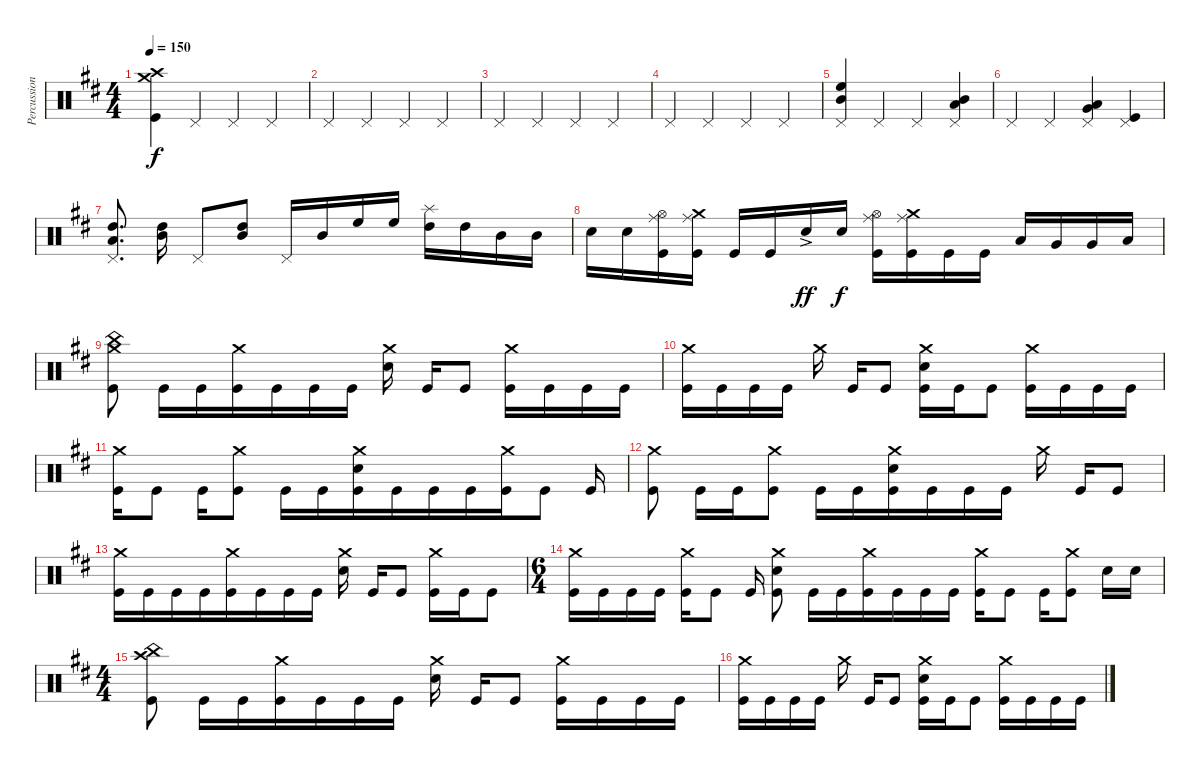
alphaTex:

\track ("Percussion" "Percussion") {instrument percussion}
\staff {score}
\articulation defaults
\ts (4 4)
\tempo 150
\clef neutral
\ks bminor
("Crash medium (hit)" "Crash high (hit)" "Kick (hit)").4{dy f} "Pedal Hi-Hat (hit)".4{volume 13} "Pedal Hi-Hat (hit)".4 "Pedal Hi-Hat (hit)".4 |
"Pedal Hi-Hat (hit)".4 "Pedal Hi-Hat (hit)".4 "Pedal Hi-Hat (hit)".4 "Pedal Hi-Hat (hit)".4 |
"Pedal Hi-Hat (hit)".4 "Pedal Hi-Hat (hit)".4 "Pedal Hi-Hat (hit)".4 "Pedal Hi-Hat (hit)".4 |
"Pedal Hi-Hat (hit)".4 "Pedal Hi-Hat (hit)".4 "Pedal Hi-Hat (hit)".4 "Pedal Hi-Hat (hit)".4 |
("Pedal Hi-Hat (hit)" "High Floor Tom (hit)" "Mid Tom (hit)").4{volume 14} "Pedal Hi-Hat (hit)".4{volume 13} "Pedal Hi-Hat (hit)".4 ("Pedal Hi-Hat (hit)" "Mid Tom (hit)" "Low Tom (hit)").4{volume 14} |
"Pedal Hi-Hat (hit)".4{volume 13} "Pedal Hi-Hat (hit)".4 ("Pedal Hi-Hat (hit)" "Low Tom (hit)" "Very Low Tom (hit)").4{volume 14} ("Pedal Hi-Hat (hit)" "Kick (hit)").4{volume 13} |
("Pedal Hi-Hat (hit)" "Low Tom (hit)" "High Tom (hit)").8{d beam split} ("Mid Tom (hit)" "High Tom (hit)").16 "Pedal Hi-Hat (hit)".8 ("High Tom (hit)" "Mid Tom (hit)").8 "Pedal Hi-Hat (hit)".16 "Mid Tom (hit)".16 "High Floor Tom (hit)".16 "High Floor Tom (hit)".16 ("Splash (hit)" "High Tom (hit)").16 "High Tom (hit)".16 "Mid Tom (hit)".16 "Mid Tom (hit)".16 |
"Electric Snare (hit)".16 "Electric Snare (hit)".16 ("Ride (middle)" "Hi-Hat (open)" "Kick (hit)").16 ("Crash medium (hit)" "Ride (middle)" "Kick (hit)").16 "Kick (hit)".16 "Kick (hit)".16 "Electric Snare (hit)"{ac}.16{dy ff} "Electric Snare (hit)".16{dy f} ("Ride (middle)" "Hi-Hat (open)" "Kick (hit)").16 ("Crash medium (hit)" "Ride (middle)" "Kick (hit)").16 "Kick (hit)".16 "Kick (hit)".16 "Low Tom (hit)".16 "Very Low Tom (hit)".16 "Very Low Tom (hit)".16 "Low Floor Tom (hit)".16 |
("Crash medium (hit)" "China (hit)" "Kick (hit)").8{beam split} "Kick (hit)".16 "Kick (hit)".16{beam merge} ("Crash medium (hit)" "Kick (hit)").16 "Kick (hit)".16 "Kick (hit)".16 "Kick (hit)".16 ("Crash medium (hit)" "Electric Snare (hit)").16{beam split} "Kick (hit)".16 "Kick (hit)".8 ("Crash medium (hit)" "Kick (hit)").16 "Kick (hit)".16 "Kick (hit)".16 "Kick (hit)".16 |
("Crash medium (hit)" "Kick (hit)").16 "Kick (hit)".16 "Kick (hit)".16 "Kick (hit)".16 "Crash medium (hit)".16{beam split} "Kick (hit)".16 "Kick (hit)".8 ("Crash medium (hit)" "Electric Snare (hit)" "Kick (hit)").16 "Kick (hit)".16 "Kick (hit)".8 ("Crash medium (hit)" "Kick (hit)").16 "Kick (hit)".16 "Kick (hit)".16 "Kick (hit)".16 |
("Crash medium (hit)" "Kick (hit)").16 "Kick (hit)".8{beam split} "Kick (hit)".16{beam merge} ("Crash medium (hit)" "Kick (hit)").8{beam split} "Kick (hit)".16 "Kick (hit)".16{beam merge} ("Crash medium (hit)" "Electric Snare (hit)" "Kick (hit)").16 "Kick (hit)".16 "Kick (hit)".16 "Kick (hit)".16{beam merge} ("Crash medium (hit)" "Kick (hit)").16 "Kick (hit)".8{beam split} "Kick (hit)".16 |
("Crash medium (hit)" "Kick (hit)").8{beam split} "Kick (hit)".16 "Kick (hit)".16{beam merge} ("Crash medium (hit)" "Kick (hit)").8{beam split} "Kick (hit)".16 "Kick (hit)".16{beam merge} ("Crash medium (hit)" "Electric Snare (hit)" "Kick (hit)").16 "Kick (hit)".16 "Kick (hit)".16 "Kick (hit)".16 "Crash medium (hit)".16{beam split} "Kick (hit)".16 "Kick (hit)".8 |
("Crash medium (hit)" "Kick (hit)").16 "Kick (hit)".16 "Kick (hit)".16 "Kick (hit)".16{beam merge} ("Crash medium (hit)" "Kick (hit)").16 "Kick (hit)".16 "Kick (hit)".16 "Kick (hit)".16 ("Crash medium (hit)" "Electric Snare (hit)").16{beam split} "Kick (hit)".16 "Kick (hit)".8 ("Crash medium (hit)" "Kick (hit)").16 "Kick (hit)".16 "Kick (hit)".8 |
\ts (6 4)
("Crash medium (hit)" "Kick (hit)").16 "Kick (hit)".16 "Kick (hit)".16 "Kick (hit)".16 ("Crash medium (hit)" "Kick (hit)").16 "Kick (hit)".8{beam split} "Kick (hit)".16 ("Crash medium (hit)" "Electric Snare (hit)" "Kick (hit)").8{beam split} "Kick (hit)".16 "Kick (hit)".16{beam merge} ("Crash medium (hit)" "Kick (hit)").16 "Kick (hit)".16 "Kick (hit)".16 "Kick (hit)".16 ("Crash medium (hit)" "Kick (hit)").16 "Kick (hit)".8{beam split} "Kick (hit)".16{beam merge} ("Crash medium (hit)" "Kick (hit)").8{beam split} "Electric Snare (hit)".16 "Electric Snare (hit)".16 |
\ts (4 4)
("Crash high (hit)" "China (hit)" "Kick (hit)").8{beam split} "Kick (hit)".16 "Kick (hit)".16{beam merge} ("Crash medium (hit)" "Kick (hit)").16 "Kick (hit)".16 "Kick (hit)".16 "Kick (hit)".16 ("Crash medium (hit)" "Electric Snare (hit)").16{beam split} "Kick (hit)".16 "Kick (hit)".8 ("Crash medium (hit)" "Kick (hit)").16 "Kick (hit)".16 "Kick (hit)".16 "Kick (hit)".16 |
("Crash medium (hit)" "Kick (hit)").16 "Kick (hit)".16 "Kick (hit)".16 "Kick (hit)".16 "Crash medium (hit)".16{beam split} "Kick (hit)".16 "Kick (hit)".8 ("Crash medium (hit)" "Electric Snare (hit)" "Kick (hit)").16 "Kick (hit)".16 "Kick (hit)".8 ("Crash medium (hit)" "Kick (hit)").16 "Kick (hit)".16 "Kick (hit)".16 "Kick (hit)".16
